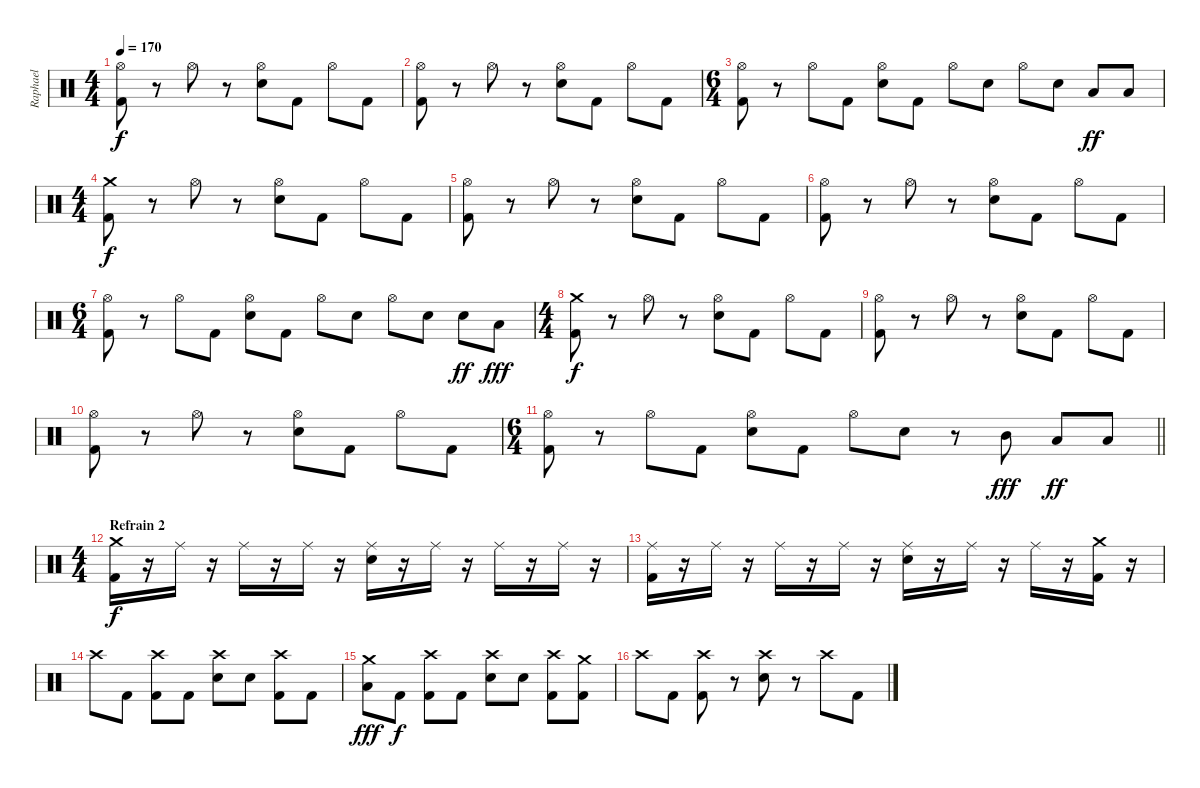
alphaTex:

\track ("Raphael" "Raphael") {instrument percussion}
\staff {score}
\articulation defaults
\ts (4 4)
\tempo 170
\clef neutral
\ks c
("Kick (hit) 2" "Hi-Hat (open)").8{dy f} r.8 "Hi-Hat (open)".8 r.8 ("Snare (hit) 2" "Hi-Hat (open)").8 "Kick (hit) 2".8 "Hi-Hat (open)".8 "Kick (hit) 2".8 |
("Kick (hit) 2" "Hi-Hat (open)").8 r.8 "Hi-Hat (open)".8 r.8 ("Snare (hit) 2" "Hi-Hat (open)").8 "Kick (hit) 2".8 "Hi-Hat (open)".8 "Kick (hit) 2".8 |
\ts (6 4)
("Kick (hit) 2" "Hi-Hat (open)").8 r.8 "Hi-Hat (open)".8 "Kick (hit) 2".8 ("Snare (hit) 2" "Hi-Hat (open)").8 "Kick (hit) 2".8 "Hi-Hat (open)".8 "Snare (hit) 2".8 "Hi-Hat (open)".8 "Snare (hit) 2".8 "Low Tom (hit)".8{dy ff} "Low Tom (hit)".8 |
\ts (4 4)
("Kick (hit) 2" "Crash medium (hit)").8{dy f} r.8 "Hi-Hat (open)".8 r.8 ("Snare (hit) 2" "Hi-Hat (open)").8 "Kick (hit) 2".8 "Hi-Hat (open)".8 "Kick (hit) 2".8 |
("Kick (hit) 2" "Hi-Hat (open)").8 r.8 "Hi-Hat (open)".8 r.8 ("Snare (hit) 2" "Hi-Hat (open)").8 "Kick (hit) 2".8 "Hi-Hat (open)".8 "Kick (hit) 2".8 |
("Kick (hit) 2" "Hi-Hat (open)").8 r.8 "Hi-Hat (open)".8 r.8 ("Snare (hit) 2" "Hi-Hat (open)").8 "Kick (hit) 2".8 "Hi-Hat (open)".8 "Kick (hit) 2".8 |
\ts (6 4)
("Kick (hit) 2" "Hi-Hat (open)").8 r.8 "Hi-Hat (open)".8 "Kick (hit) 2".8 ("Snare (hit) 2" "Hi-Hat (open)").8 "Kick (hit) 2".8 "Hi-Hat (open)".8 "Snare (hit) 2".8 "Hi-Hat (open)".8 "Snare (hit) 2".8 "Snare (hit) 2".8{dy ff} "Low Floor Tom (hit)".8{dy fff} |
\ts (4 4)
("Kick (hit) 2" "Crash medium (hit)").8{dy f} r.8 "Hi-Hat (open)".8 r.8 ("Snare (hit) 2" "Hi-Hat (open)").8 "Kick (hit) 2".8 "Hi-Hat (open)".8 "Kick (hit) 2".8 |
("Kick (hit) 2" "Hi-Hat (open)").8 r.8 "Hi-Hat (open)".8 r.8 ("Snare (hit) 2" "Hi-Hat (open)").8 "Kick (hit) 2".8 "Hi-Hat (open)".8 "Kick (hit) 2".8 |
("Kick (hit) 2" "Hi-Hat (open)").8 r.8 "Hi-Hat (open)".8 r.8 ("Snare (hit) 2" "Hi-Hat (open)").8 "Kick (hit) 2".8 "Hi-Hat (open)".8 "Kick (hit) 2".8 |
\ts (6 4)
\barLineRight lightlight
("Kick (hit) 2" "Hi-Hat (open)").8 r.8 "Hi-Hat (open)".8 "Kick (hit) 2".8 ("Snare (hit) 2" "Hi-Hat (open)").8 "Kick (hit) 2".8 "Hi-Hat (open)".8 "Snare (hit) 2".8 r.8 "Mid Tom (hit)".8{dy fff} "Low Tom (hit)".8{dy ff} "Low Tom (hit)".8 |
\ts (4 4)
\section ("" "Refrain 2")
("Kick (hit) 2" "Crash medium (hit)").16{dy f} r.16 "Ride (middle)".16 r.16 "Ride (middle)".16 r.16 "Ride (middle)".16 r.16 ("Snare (hit) 2" "Ride (middle)").16 r.16 "Ride (middle)".16 r.16 "Ride (middle)".16 r.16 "Ride (middle)".16 r.16 |
("Kick (hit) 2" "Ride (middle)").16 r.16 "Ride (middle)".16 r.16 "Ride (middle)".16 r.16 "Ride (middle)".16 r.16 ("Snare (hit) 2" "Ride (middle)").16 r.16 "Ride (middle)".16 r.16 "Ride (middle)".16 r.16 ("Kick (hit) 2" "Crash medium (hit)").16 r.16 |
"Crash high (hit)".8 "Kick (hit) 2".8 ("Kick (hit) 2" "Crash high (hit)").8 "Kick (hit) 2".8 ("Snare (hit) 2" "Crash high (hit)").8 "Snare (hit) 2".8 ("Kick (hit) 2" "Crash high (hit)").8 "Kick (hit) 2".8 |
("Low Tom (hit)" "Crash medium (hit)").8{dy fff} "Kick (hit) 2".8{dy f} ("Kick (hit) 2" "Crash high (hit)").8 "Kick (hit) 2".8 ("Snare (hit) 2" "Crash high (hit)").8 "Snare (hit) 2".8 ("Kick (hit) 2" "Crash high (hit)").8 ("Kick (hit) 2" "Crash medium (hit)").8 |
"Crash high (hit)".8 "Kick (hit) 2".8 ("Kick (hit) 2" "Crash high (hit)").8 r.8 ("Snare (hit) 2" "Crash high (hit)").8 r.8 "Crash high (hit)".8 "Kick (hit) 2".8
